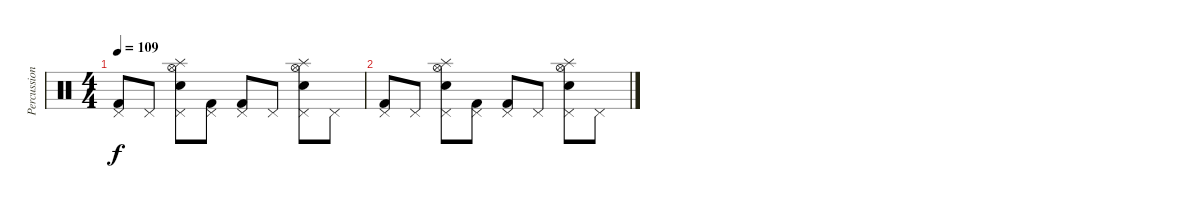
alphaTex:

\track ("Percussion" "Percussion") {instrument percussion}
\staff {score}
\articulation defaults
\ts (4 4)
\tempo 109
\clef neutral
\ks c
("Pedal Hi-Hat (hit)" "Kick (hit) 2").8{dy f} "Pedal Hi-Hat (hit)".8 ("Pedal Hi-Hat (hit)" "Splash (hit)" "Electric Snare (hit)" "Hi-Hat (open)").8 ("Pedal Hi-Hat (hit)" "Kick (hit) 2").8 ("Pedal Hi-Hat (hit)" "Kick (hit) 2").8 "Pedal Hi-Hat (hit)".8 ("Pedal Hi-Hat (hit)" "Splash (hit)" "Electric Snare (hit)" "Hi-Hat (open)").8 "Pedal Hi-Hat (hit)".8 |
("Pedal Hi-Hat (hit)" "Kick (hit) 2").8 "Pedal Hi-Hat (hit)".8 ("Pedal Hi-Hat (hit)" "Splash (hit)" "Electric Snare (hit)" "Hi-Hat (open)").8 ("Pedal Hi-Hat (hit)" "Kick (hit) 2").8 ("Pedal Hi-Hat (hit)" "Kick (hit) 2").8 "Pedal Hi-Hat (hit)".8 ("Pedal Hi-Hat (hit)" "Splash (hit)" "Electric Snare (hit)" "Hi-Hat (open)").8 "Pedal Hi-Hat (hit)".8
